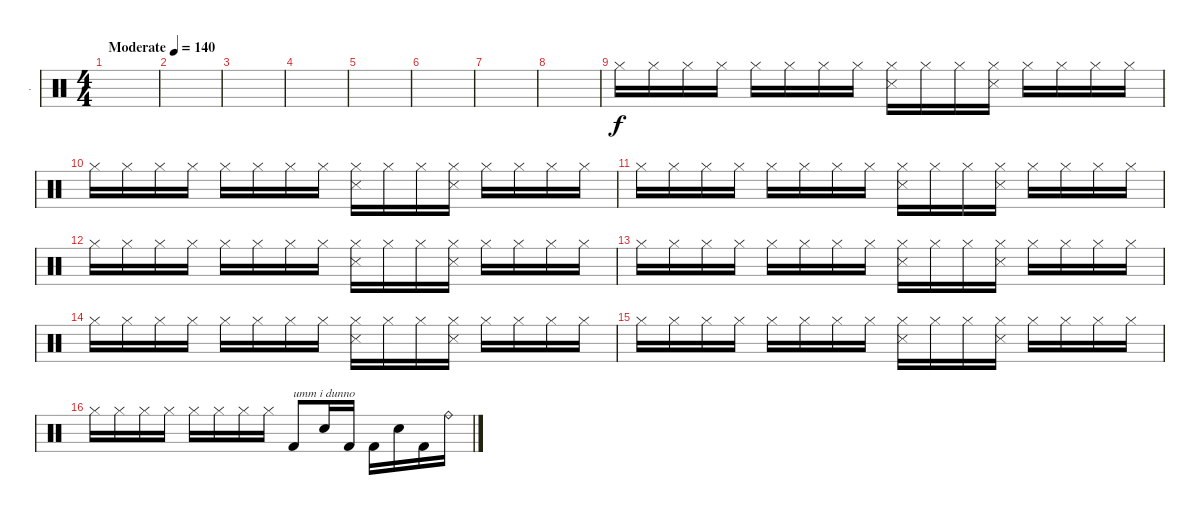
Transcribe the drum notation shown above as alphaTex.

\track ("." ".") {instrument percussion}
\staff {score}
\articulation defaults
\ts (4 4)
\tempo (140 "Moderate")
\clef neutral
\ks c
|
|
|
|
|
|
|
|
"Hi-Hat (closed)".16 "Hi-Hat (closed)".16 "Hi-Hat (closed)".16 "Hi-Hat (closed)".16 "Hi-Hat (closed)".16 "Hi-Hat (closed)".16 "Hi-Hat (closed)".16 "Hi-Hat (closed)".16 ("Hi-Hat (closed)" "Snare (side stick) 3").16 "Hi-Hat (closed)".16 "Hi-Hat (closed)".16 ("Hi-Hat (closed)" "Snare (side stick) 3").16 "Hi-Hat (closed)".16 "Hi-Hat (closed)".16 "Hi-Hat (closed)".16 "Hi-Hat (closed)".16 |
"Hi-Hat (closed)".16 "Hi-Hat (closed)".16 "Hi-Hat (closed)".16 "Hi-Hat (closed)".16 "Hi-Hat (closed)".16 "Hi-Hat (closed)".16 "Hi-Hat (closed)".16 "Hi-Hat (closed)".16 ("Hi-Hat (closed)" "Snare (side stick) 3").16 "Hi-Hat (closed)".16 "Hi-Hat (closed)".16 ("Hi-Hat (closed)" "Snare (side stick) 3").16 "Hi-Hat (closed)".16 "Hi-Hat (closed)".16 "Hi-Hat (closed)".16 "Hi-Hat (closed)".16 |
"Hi-Hat (closed)".16 "Hi-Hat (closed)".16 "Hi-Hat (closed)".16 "Hi-Hat (closed)".16 "Hi-Hat (closed)".16 "Hi-Hat (closed)".16 "Hi-Hat (closed)".16 "Hi-Hat (closed)".16 ("Hi-Hat (closed)" "Snare (side stick) 3").16 "Hi-Hat (closed)".16 "Hi-Hat (closed)".16 ("Hi-Hat (closed)" "Snare (side stick) 3").16 "Hi-Hat (closed)".16 "Hi-Hat (closed)".16 "Hi-Hat (closed)".16 "Hi-Hat (closed)".16 |
"Hi-Hat (closed)".16 "Hi-Hat (closed)".16 "Hi-Hat (closed)".16 "Hi-Hat (closed)".16 "Hi-Hat (closed)".16 "Hi-Hat (closed)".16 "Hi-Hat (closed)".16 "Hi-Hat (closed)".16 ("Hi-Hat (closed)" "Snare (side stick) 3").16 "Hi-Hat (closed)".16 "Hi-Hat (closed)".16 ("Hi-Hat (closed)" "Snare (side stick) 3").16 "Hi-Hat (closed)".16 "Hi-Hat (closed)".16 "Hi-Hat (closed)".16 "Hi-Hat (closed)".16 |
"Hi-Hat (closed)".16 "Hi-Hat (closed)".16 "Hi-Hat (closed)".16 "Hi-Hat (closed)".16 "Hi-Hat (closed)".16 "Hi-Hat (closed)".16 "Hi-Hat (closed)".16 "Hi-Hat (closed)".16 ("Hi-Hat (closed)" "Snare (side stick) 3").16 "Hi-Hat (closed)".16 "Hi-Hat (closed)".16 ("Hi-Hat (closed)" "Snare (side stick) 3").16 "Hi-Hat (closed)".16 "Hi-Hat (closed)".16 "Hi-Hat (closed)".16 "Hi-Hat (closed)".16 |
"Hi-Hat (closed)".16 "Hi-Hat (closed)".16 "Hi-Hat (closed)".16 "Hi-Hat (closed)".16 "Hi-Hat (closed)".16 "Hi-Hat (closed)".16 "Hi-Hat (closed)".16 "Hi-Hat (closed)".16 ("Hi-Hat (closed)" "Snare (side stick) 3").16 "Hi-Hat (closed)".16 "Hi-Hat (closed)".16 ("Hi-Hat (closed)" "Snare (side stick) 3").16 "Hi-Hat (closed)".16 "Hi-Hat (closed)".16 "Hi-Hat (closed)".16 "Hi-Hat (closed)".16 |
"Hi-Hat (closed)".16 "Hi-Hat (closed)".16 "Hi-Hat (closed)".16 "Hi-Hat (closed)".16 "Hi-Hat (closed)".16 "Hi-Hat (closed)".16 "Hi-Hat (closed)".16 "Hi-Hat (closed)".16 ("Hi-Hat (closed)" "Snare (side stick) 3").16 "Hi-Hat (closed)".16 "Hi-Hat (closed)".16 ("Hi-Hat (closed)" "Snare (side stick) 3").16 "Hi-Hat (closed)".16 "Hi-Hat (closed)".16 "Hi-Hat (closed)".16 "Hi-Hat (closed)".16 |
"Hi-Hat (closed)".16 "Hi-Hat (closed)".16 "Hi-Hat (closed)".16 "Hi-Hat (closed)".16 "Hi-Hat (closed)".16 "Hi-Hat (closed)".16 "Hi-Hat (closed)".16 "Hi-Hat (closed)".16 "Kick (hit) 2".8{txt "umm i dunno"} "Electric Snare (hit)".16 "Kick (hit) 2".16 "Kick (hit) 2".16 "Electric Snare (hit)".16 "Kick (hit) 2".16 "Ride (bell)".16
